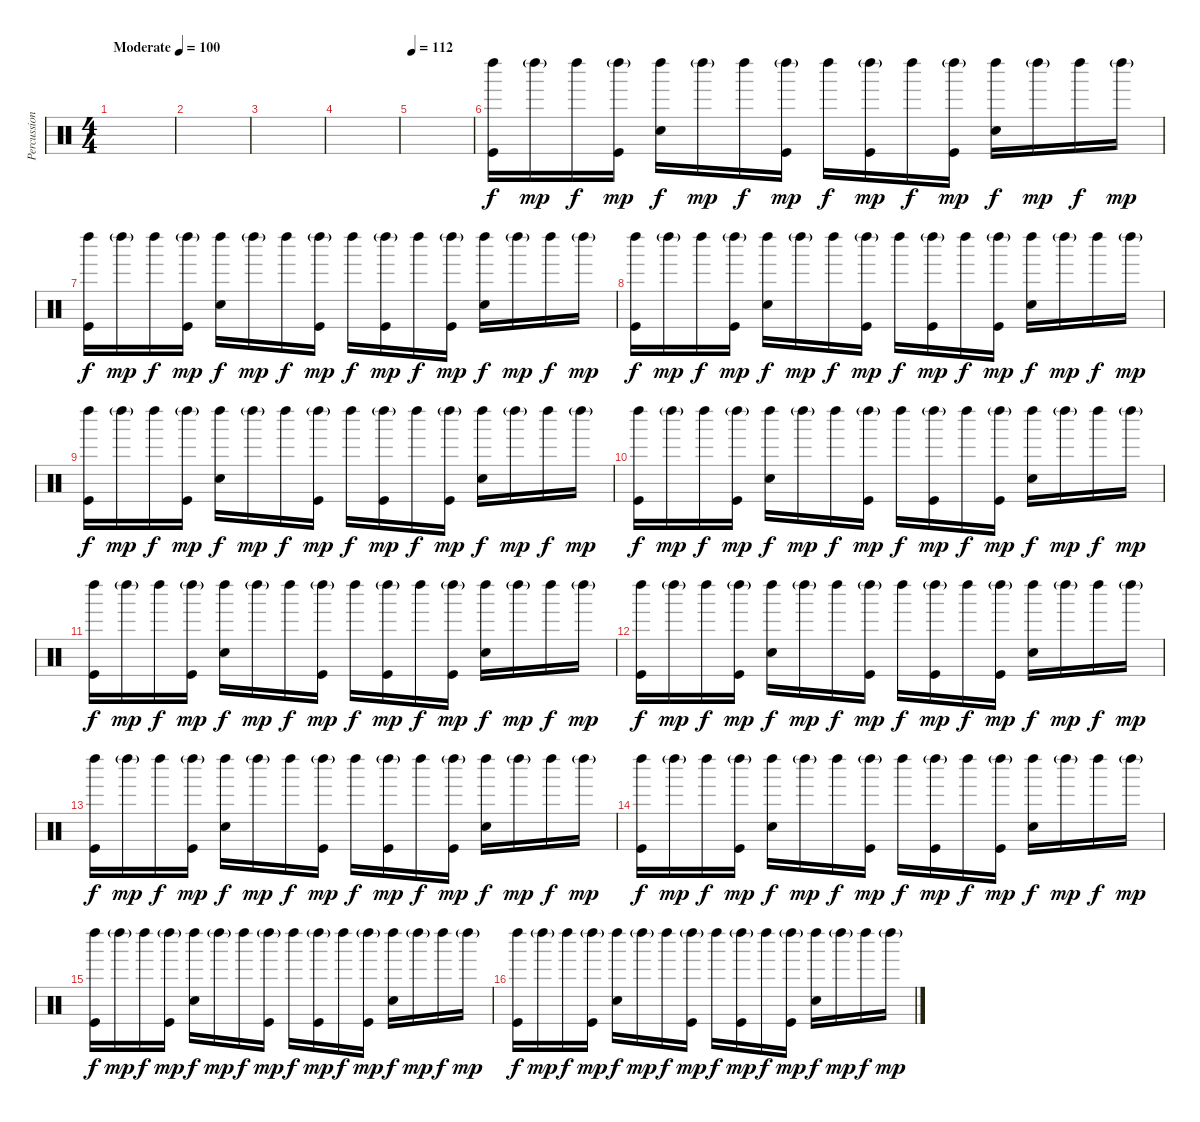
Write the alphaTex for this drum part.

\track ("Percussion" "Percussion") {instrument percussion}
\staff {score}
\articulation defaults
\ts (4 4)
\tempo (100 "Moderate")
\clef neutral
\ks c
|
|
|
|
\tempo 112
|
("Left Maraca (hit)" "Kick (hit)").16{volume 13} "Left Maraca (hit)"{g}.16{dy mp} "Left Maraca (hit)".16{dy f} ("Left Maraca (hit)"{g} "Kick (hit)").16{dy mp} ("Left Maraca (hit)" "Snare (hit) 2").16{dy f} "Left Maraca (hit)"{g}.16{dy mp} "Left Maraca (hit)".16{dy f} ("Left Maraca (hit)"{g} "Kick (hit)").16{dy mp} "Left Maraca (hit)".16{dy f} ("Left Maraca (hit)"{g} "Kick (hit)").16{dy mp} "Left Maraca (hit)".16{dy f} ("Left Maraca (hit)"{g} "Kick (hit)").16{dy mp} ("Left Maraca (hit)" "Snare (hit) 2").16{dy f} "Left Maraca (hit)"{g}.16{dy mp} "Left Maraca (hit)".16{dy f} "Left Maraca (hit)"{g}.16{dy mp} |
("Left Maraca (hit)" "Kick (hit)").16{dy f} "Left Maraca (hit)"{g}.16{dy mp} "Left Maraca (hit)".16{dy f} ("Left Maraca (hit)"{g} "Kick (hit)").16{dy mp} ("Left Maraca (hit)" "Snare (hit) 2").16{dy f} "Left Maraca (hit)"{g}.16{dy mp} "Left Maraca (hit)".16{dy f} ("Left Maraca (hit)"{g} "Kick (hit)").16{dy mp} "Left Maraca (hit)".16{dy f} ("Left Maraca (hit)"{g} "Kick (hit)").16{dy mp} "Left Maraca (hit)".16{dy f} ("Left Maraca (hit)"{g} "Kick (hit)").16{dy mp} ("Left Maraca (hit)" "Snare (hit) 2").16{dy f} "Left Maraca (hit)"{g}.16{dy mp} "Left Maraca (hit)".16{dy f} "Left Maraca (hit)"{g}.16{dy mp} |
("Left Maraca (hit)" "Kick (hit)").16{dy f} "Left Maraca (hit)"{g}.16{dy mp} "Left Maraca (hit)".16{dy f} ("Left Maraca (hit)"{g} "Kick (hit)").16{dy mp} ("Left Maraca (hit)" "Snare (hit) 2").16{dy f} "Left Maraca (hit)"{g}.16{dy mp} "Left Maraca (hit)".16{dy f} ("Left Maraca (hit)"{g} "Kick (hit)").16{dy mp} "Left Maraca (hit)".16{dy f} ("Left Maraca (hit)"{g} "Kick (hit)").16{dy mp} "Left Maraca (hit)".16{dy f} ("Left Maraca (hit)"{g} "Kick (hit)").16{dy mp} ("Left Maraca (hit)" "Snare (hit) 2").16{dy f} "Left Maraca (hit)"{g}.16{dy mp} "Left Maraca (hit)".16{dy f} "Left Maraca (hit)"{g}.16{dy mp} |
("Left Maraca (hit)" "Kick (hit)").16{dy f} "Left Maraca (hit)"{g}.16{dy mp} "Left Maraca (hit)".16{dy f} ("Left Maraca (hit)"{g} "Kick (hit)").16{dy mp} ("Left Maraca (hit)" "Snare (hit) 2").16{dy f} "Left Maraca (hit)"{g}.16{dy mp} "Left Maraca (hit)".16{dy f} ("Left Maraca (hit)"{g} "Kick (hit)").16{dy mp} "Left Maraca (hit)".16{dy f} ("Left Maraca (hit)"{g} "Kick (hit)").16{dy mp} "Left Maraca (hit)".16{dy f} ("Left Maraca (hit)"{g} "Kick (hit)").16{dy mp} ("Left Maraca (hit)" "Snare (hit) 2").16{dy f} "Left Maraca (hit)"{g}.16{dy mp} "Left Maraca (hit)".16{dy f} "Left Maraca (hit)"{g}.16{dy mp} |
("Left Maraca (hit)" "Kick (hit)").16{dy f} "Left Maraca (hit)"{g}.16{dy mp} "Left Maraca (hit)".16{dy f} ("Left Maraca (hit)"{g} "Kick (hit)").16{dy mp} ("Left Maraca (hit)" "Snare (hit) 2").16{dy f} "Left Maraca (hit)"{g}.16{dy mp} "Left Maraca (hit)".16{dy f} ("Left Maraca (hit)"{g} "Kick (hit)").16{dy mp} "Left Maraca (hit)".16{dy f} ("Left Maraca (hit)"{g} "Kick (hit)").16{dy mp} "Left Maraca (hit)".16{dy f} ("Left Maraca (hit)"{g} "Kick (hit)").16{dy mp} ("Left Maraca (hit)" "Snare (hit) 2").16{dy f} "Left Maraca (hit)"{g}.16{dy mp} "Left Maraca (hit)".16{dy f} "Left Maraca (hit)"{g}.16{dy mp} |
("Left Maraca (hit)" "Kick (hit)").16{dy f} "Left Maraca (hit)"{g}.16{dy mp} "Left Maraca (hit)".16{dy f} ("Left Maraca (hit)"{g} "Kick (hit)").16{dy mp} ("Left Maraca (hit)" "Snare (hit) 2").16{dy f} "Left Maraca (hit)"{g}.16{dy mp} "Left Maraca (hit)".16{dy f} ("Left Maraca (hit)"{g} "Kick (hit)").16{dy mp} "Left Maraca (hit)".16{dy f} ("Left Maraca (hit)"{g} "Kick (hit)").16{dy mp} "Left Maraca (hit)".16{dy f} ("Left Maraca (hit)"{g} "Kick (hit)").16{dy mp} ("Left Maraca (hit)" "Snare (hit) 2").16{dy f} "Left Maraca (hit)"{g}.16{dy mp} "Left Maraca (hit)".16{dy f} "Left Maraca (hit)"{g}.16{dy mp} |
("Left Maraca (hit)" "Kick (hit)").16{dy f} "Left Maraca (hit)"{g}.16{dy mp} "Left Maraca (hit)".16{dy f} ("Left Maraca (hit)"{g} "Kick (hit)").16{dy mp} ("Left Maraca (hit)" "Snare (hit) 2").16{dy f} "Left Maraca (hit)"{g}.16{dy mp} "Left Maraca (hit)".16{dy f} ("Left Maraca (hit)"{g} "Kick (hit)").16{dy mp} "Left Maraca (hit)".16{dy f} ("Left Maraca (hit)"{g} "Kick (hit)").16{dy mp} "Left Maraca (hit)".16{dy f} ("Left Maraca (hit)"{g} "Kick (hit)").16{dy mp} ("Left Maraca (hit)" "Snare (hit) 2").16{dy f} "Left Maraca (hit)"{g}.16{dy mp} "Left Maraca (hit)".16{dy f} "Left Maraca (hit)"{g}.16{dy mp} |
("Left Maraca (hit)" "Kick (hit)").16{dy f} "Left Maraca (hit)"{g}.16{dy mp} "Left Maraca (hit)".16{dy f} ("Left Maraca (hit)"{g} "Kick (hit)").16{dy mp} ("Left Maraca (hit)" "Snare (hit) 2").16{dy f} "Left Maraca (hit)"{g}.16{dy mp} "Left Maraca (hit)".16{dy f} ("Left Maraca (hit)"{g} "Kick (hit)").16{dy mp} "Left Maraca (hit)".16{dy f} ("Left Maraca (hit)"{g} "Kick (hit)").16{dy mp} "Left Maraca (hit)".16{dy f} ("Left Maraca (hit)"{g} "Kick (hit)").16{dy mp} ("Left Maraca (hit)" "Snare (hit) 2").16{dy f} "Left Maraca (hit)"{g}.16{dy mp} "Left Maraca (hit)".16{dy f} "Left Maraca (hit)"{g}.16{dy mp} |
("Left Maraca (hit)" "Kick (hit)").16{dy f} "Left Maraca (hit)"{g}.16{dy mp} "Left Maraca (hit)".16{dy f} ("Left Maraca (hit)"{g} "Kick (hit)").16{dy mp} ("Left Maraca (hit)" "Snare (hit) 2").16{dy f} "Left Maraca (hit)"{g}.16{dy mp} "Left Maraca (hit)".16{dy f} ("Left Maraca (hit)"{g} "Kick (hit)").16{dy mp} "Left Maraca (hit)".16{dy f} ("Left Maraca (hit)"{g} "Kick (hit)").16{dy mp} "Left Maraca (hit)".16{dy f} ("Left Maraca (hit)"{g} "Kick (hit)").16{dy mp} ("Left Maraca (hit)" "Snare (hit) 2").16{dy f} "Left Maraca (hit)"{g}.16{dy mp} "Left Maraca (hit)".16{dy f} "Left Maraca (hit)"{g}.16{dy mp} |
("Left Maraca (hit)" "Kick (hit)").16{dy f} "Left Maraca (hit)"{g}.16{dy mp} "Left Maraca (hit)".16{dy f} ("Left Maraca (hit)"{g} "Kick (hit)").16{dy mp} ("Left Maraca (hit)" "Snare (hit) 2").16{dy f} "Left Maraca (hit)"{g}.16{dy mp} "Left Maraca (hit)".16{dy f} ("Left Maraca (hit)"{g} "Kick (hit)").16{dy mp} "Left Maraca (hit)".16{dy f} ("Left Maraca (hit)"{g} "Kick (hit)").16{dy mp} "Left Maraca (hit)".16{dy f} ("Left Maraca (hit)"{g} "Kick (hit)").16{dy mp} ("Left Maraca (hit)" "Snare (hit) 2").16{dy f} "Left Maraca (hit)"{g}.16{dy mp} "Left Maraca (hit)".16{dy f} "Left Maraca (hit)"{g}.16{dy mp} |
("Left Maraca (hit)" "Kick (hit)").16{dy f} "Left Maraca (hit)"{g}.16{dy mp} "Left Maraca (hit)".16{dy f} ("Left Maraca (hit)"{g} "Kick (hit)").16{dy mp} ("Left Maraca (hit)" "Snare (hit) 2").16{dy f} "Left Maraca (hit)"{g}.16{dy mp} "Left Maraca (hit)".16{dy f} ("Left Maraca (hit)"{g} "Kick (hit)").16{dy mp} "Left Maraca (hit)".16{dy f} ("Left Maraca (hit)"{g} "Kick (hit)").16{dy mp} "Left Maraca (hit)".16{dy f} ("Left Maraca (hit)"{g} "Kick (hit)").16{dy mp} ("Left Maraca (hit)" "Snare (hit) 2").16{dy f} "Left Maraca (hit)"{g}.16{dy mp} "Left Maraca (hit)".16{dy f} "Left Maraca (hit)"{g}.16{dy mp}
